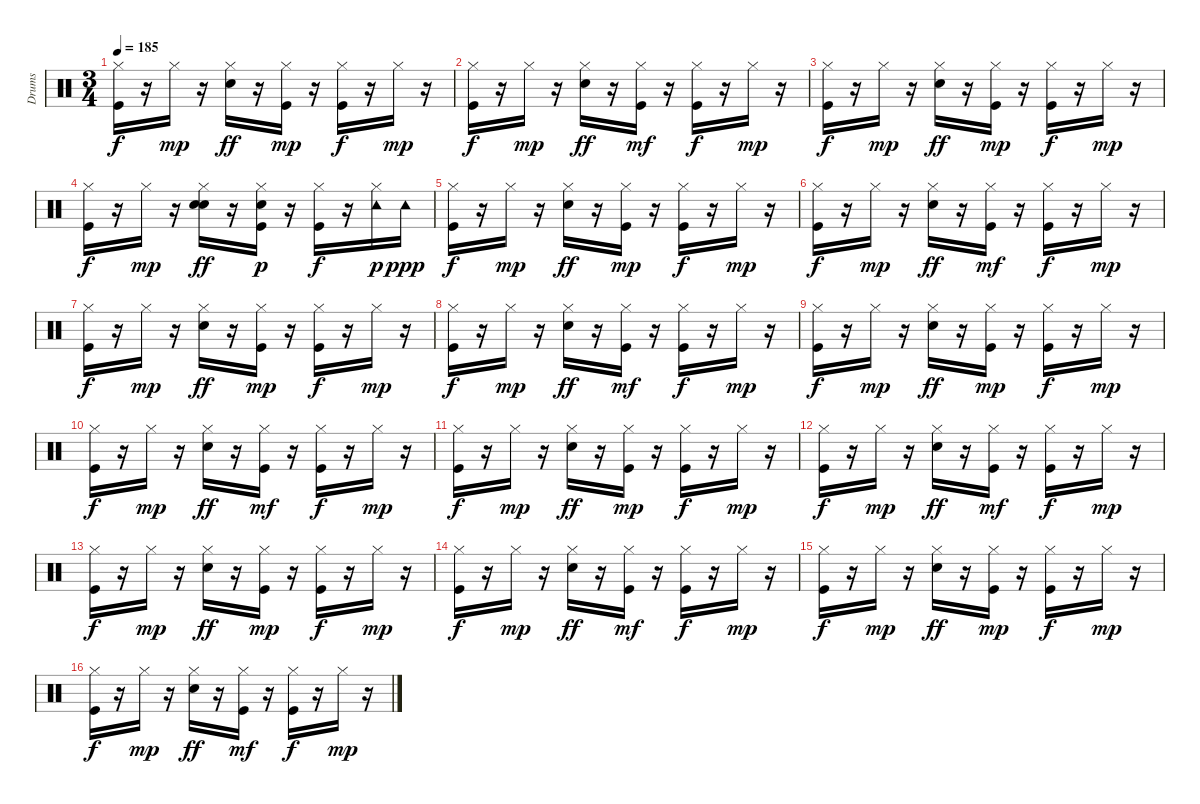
\track ("Drums " "Drums ") {instrument percussion}
\staff {score}
\articulation defaults
\ts (3 4)
\tempo 185
\clef neutral
\ks c
("Kick (hit)" "Hi-Hat (closed)").16{dy f} r.16 "Hi-Hat (closed)".16{dy mp} r.16 ("Snare (hit) 2" "Hi-Hat (closed)").16{dy ff} r.16 ("Kick (hit)" "Hi-Hat (closed)").16{dy mp} r.16 ("Kick (hit)" "Hi-Hat (closed)").16{dy f} r.16 "Hi-Hat (closed)".16{dy mp} r.16 |
("Kick (hit)" "Hi-Hat (closed)").16{dy f} r.16 "Hi-Hat (closed)".16{dy mp} r.16 ("Snare (hit) 2" "Hi-Hat (closed)").16{dy ff} r.16 ("Kick (hit)" "Hi-Hat (closed)").16{dy mf} r.16 ("Kick (hit)" "Hi-Hat (closed)").16{dy f} r.16 "Hi-Hat (closed)".16{dy mp} r.16 |
("Kick (hit)" "Hi-Hat (closed)").16{dy f} r.16 "Hi-Hat (closed)".16{dy mp} r.16 ("Snare (hit) 2" "Hi-Hat (closed)").16{dy ff} r.16 ("Kick (hit)" "Hi-Hat (closed)").16{dy mp} r.16 ("Kick (hit)" "Hi-Hat (closed)").16{dy f} r.16 "Hi-Hat (closed)".16{dy mp} r.16 |
("Kick (hit)" "Hi-Hat (closed)").16{dy f} r.16 "Hi-Hat (closed)".16{dy mp} r.16 ("Snare (hit) 2" "Hi-Hat (closed)" "Hand Clap (hit)").16{dy ff} r.16 ("Kick (hit)" "Hi-Hat (closed)" "Hand Clap (hit)").16{dy p} r.16 ("Kick (hit)" "Hi-Hat (closed)").16{dy f} r.16 ("Hi-Hat (closed)" "Tambourine (hit)").16{dy p} "Tambourine (hit)".16{dy ppp} |
("Kick (hit)" "Hi-Hat (closed)").16{dy f} r.16 "Hi-Hat (closed)".16{dy mp} r.16 ("Snare (hit) 2" "Hi-Hat (closed)").16{dy ff} r.16 ("Kick (hit)" "Hi-Hat (closed)").16{dy mp} r.16 ("Kick (hit)" "Hi-Hat (closed)").16{dy f} r.16 "Hi-Hat (closed)".16{dy mp} r.16 |
("Kick (hit)" "Hi-Hat (closed)").16{dy f} r.16 "Hi-Hat (closed)".16{dy mp} r.16 ("Snare (hit) 2" "Hi-Hat (closed)").16{dy ff} r.16 ("Kick (hit)" "Hi-Hat (closed)").16{dy mf} r.16 ("Kick (hit)" "Hi-Hat (closed)").16{dy f} r.16 "Hi-Hat (closed)".16{dy mp} r.16 |
("Kick (hit)" "Hi-Hat (closed)").16{dy f} r.16 "Hi-Hat (closed)".16{dy mp} r.16 ("Snare (hit) 2" "Hi-Hat (closed)").16{dy ff} r.16 ("Kick (hit)" "Hi-Hat (closed)").16{dy mp} r.16 ("Kick (hit)" "Hi-Hat (closed)").16{dy f} r.16 "Hi-Hat (closed)".16{dy mp} r.16 |
("Kick (hit)" "Hi-Hat (closed)").16{dy f} r.16 "Hi-Hat (closed)".16{dy mp} r.16 ("Snare (hit) 2" "Hi-Hat (closed)").16{dy ff} r.16 ("Kick (hit)" "Hi-Hat (closed)").16{dy mf} r.16 ("Kick (hit)" "Hi-Hat (closed)").16{dy f} r.16 "Hi-Hat (closed)".16{dy mp} r.16 |
("Kick (hit)" "Hi-Hat (closed)").16{dy f} r.16 "Hi-Hat (closed)".16{dy mp} r.16 ("Snare (hit) 2" "Hi-Hat (closed)").16{dy ff} r.16 ("Kick (hit)" "Hi-Hat (closed)").16{dy mp} r.16 ("Kick (hit)" "Hi-Hat (closed)").16{dy f} r.16 "Hi-Hat (closed)".16{dy mp} r.16 |
("Kick (hit)" "Hi-Hat (closed)").16{dy f} r.16 "Hi-Hat (closed)".16{dy mp} r.16 ("Snare (hit) 2" "Hi-Hat (closed)").16{dy ff} r.16 ("Kick (hit)" "Hi-Hat (closed)").16{dy mf} r.16 ("Kick (hit)" "Hi-Hat (closed)").16{dy f} r.16 "Hi-Hat (closed)".16{dy mp} r.16 |
("Kick (hit)" "Hi-Hat (closed)").16{dy f} r.16 "Hi-Hat (closed)".16{dy mp} r.16 ("Snare (hit) 2" "Hi-Hat (closed)").16{dy ff} r.16 ("Kick (hit)" "Hi-Hat (closed)").16{dy mp} r.16 ("Kick (hit)" "Hi-Hat (closed)").16{dy f} r.16 "Hi-Hat (closed)".16{dy mp} r.16 |
("Kick (hit)" "Hi-Hat (closed)").16{dy f} r.16 "Hi-Hat (closed)".16{dy mp} r.16 ("Snare (hit) 2" "Hi-Hat (closed)").16{dy ff} r.16 ("Kick (hit)" "Hi-Hat (closed)").16{dy mf} r.16 ("Kick (hit)" "Hi-Hat (closed)").16{dy f} r.16 "Hi-Hat (closed)".16{dy mp} r.16 |
("Kick (hit)" "Hi-Hat (closed)").16{dy f} r.16 "Hi-Hat (closed)".16{dy mp} r.16 ("Snare (hit) 2" "Hi-Hat (closed)").16{dy ff} r.16 ("Kick (hit)" "Hi-Hat (closed)").16{dy mp} r.16 ("Kick (hit)" "Hi-Hat (closed)").16{dy f} r.16 "Hi-Hat (closed)".16{dy mp} r.16 |
("Kick (hit)" "Hi-Hat (closed)").16{dy f} r.16 "Hi-Hat (closed)".16{dy mp} r.16 ("Snare (hit) 2" "Hi-Hat (closed)").16{dy ff} r.16 ("Kick (hit)" "Hi-Hat (closed)").16{dy mf} r.16 ("Kick (hit)" "Hi-Hat (closed)").16{dy f} r.16 "Hi-Hat (closed)".16{dy mp} r.16 |
("Kick (hit)" "Hi-Hat (closed)").16{dy f} r.16 "Hi-Hat (closed)".16{dy mp} r.16 ("Snare (hit) 2" "Hi-Hat (closed)").16{dy ff} r.16 ("Kick (hit)" "Hi-Hat (closed)").16{dy mp} r.16 ("Kick (hit)" "Hi-Hat (closed)").16{dy f} r.16 "Hi-Hat (closed)".16{dy mp} r.16 |
("Kick (hit)" "Hi-Hat (closed)").16{dy f} r.16 "Hi-Hat (closed)".16{dy mp} r.16 ("Snare (hit) 2" "Hi-Hat (closed)").16{dy ff} r.16 ("Kick (hit)" "Hi-Hat (closed)").16{dy mf} r.16 ("Kick (hit)" "Hi-Hat (closed)").16{dy f} r.16 "Hi-Hat (closed)".16{dy mp} r.16
